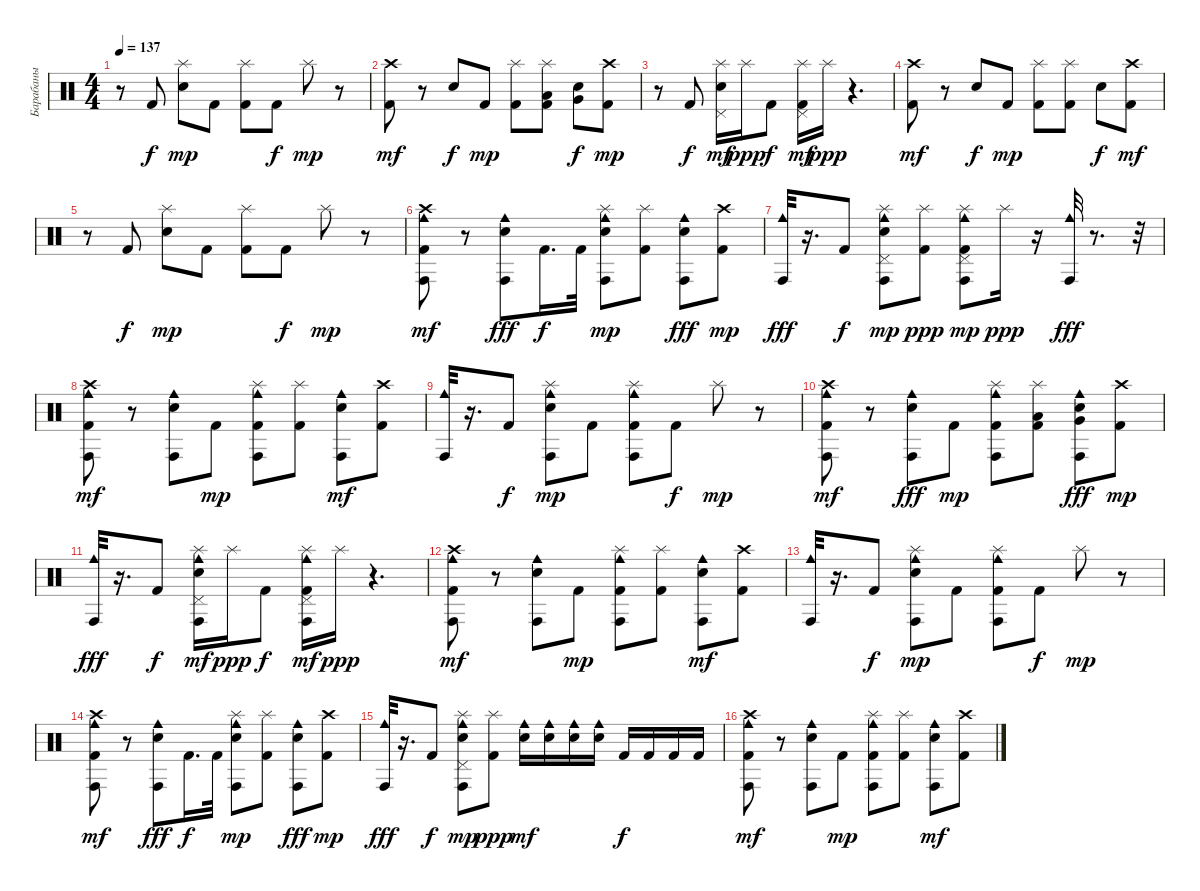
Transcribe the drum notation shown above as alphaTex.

\track ("Барабаны" "Барабаны") {instrument percussion}
\staff {score}
\articulation defaults
\ts (4 4)
\tempo 137
\clef neutral
\ks c
r.8{dy mf} "Kick (hit) 2".8{dy f} ("Splash (hit)" "Electric Snare (hit)").8{dy mp} "Kick (hit) 2".8 ("Splash (hit)" "Kick (hit) 2").8 "Kick (hit) 2".8{dy f} "Splash (hit)".8{dy mp} r.8 |
("Crash high (hit)" "Kick (hit) 2").8{dy mf} r.8 "Electric Snare (hit)".8{dy f} "Kick (hit) 2".8{dy mp} ("Splash (hit)" "Kick (hit) 2").8 ("Splash (hit)" "Low Tom (hit)" "Kick (hit) 2").8 ("Very Low Tom (hit)" "Electric Snare (hit)").8{dy f} ("Crash high (hit)" "Kick (hit) 2").8{dy mp} |
r.8 "Kick (hit) 2".8{dy f} ("Splash (hit)" "Pedal Hi-Hat (hit)" "Electric Snare (hit)").16{dy mf} "Splash (hit)".16{dy ppp} "Kick (hit) 2".8{dy f} ("Splash (hit)" "Pedal Hi-Hat (hit)" "Kick (hit) 2").16{dy mf} "Splash (hit)".16{dy ppp} r.4{d} |
("Crash high (hit)" "Kick (hit) 2").8{dy mf} r.8 "Electric Snare (hit)".8{dy f} "Kick (hit) 2".8{dy mp} ("Splash (hit)" "Kick (hit) 2").8 ("Splash (hit)" "Kick (hit) 2").8 "Electric Snare (hit)".8{dy f} ("Crash high (hit)" "Kick (hit) 2").8{dy mf} |
r.8 "Kick (hit) 2".8{dy f} ("Splash (hit)" "Electric Snare (hit)").8{dy mp} "Kick (hit) 2".8 ("Splash (hit)" "Kick (hit) 2").8 "Kick (hit) 2".8{dy f} "Splash (hit)".8{dy mp} r.8 |
("Conga high (hit)" "Cowbell medium (hit)" "Crash high (hit)" "Kick (hit) 2").8{dy mf} r.8 ("Conga high (hit)" "Cowbell medium (hit)" "Electric Snare (hit)").8{dy fff} "Kick (hit) 2".16{d dy f} "Kick (hit) 2".32 ("Conga high (hit)" "Cowbell medium (hit)" "Electric Snare (hit)" "Splash (hit)").8{dy mp} ("Splash (hit)" "Kick (hit) 2").8 ("Conga high (hit)" "Cowbell medium (hit)" "Electric Snare (hit)").8{dy fff} ("Crash high (hit)" "Kick (hit) 2").8{dy mp} |
("Conga high (hit)" "Cowbell medium (hit)").32{dy fff} r.16{d} "Kick (hit) 2".8{dy f} ("Conga high (hit)" "Cowbell medium (hit)" "Splash (hit)" "Pedal Hi-Hat (hit)" "Electric Snare (hit)").8{dy mp} ("Splash (hit)" "Kick (hit) 2").8{dy ppp} ("Conga high (hit)" "Cowbell medium (hit)" "Splash (hit)" "Pedal Hi-Hat (hit)" "Kick (hit) 2").8{dy mp} "Splash (hit)".16{dy ppp} r.16 ("Conga high (hit)" "Cowbell medium (hit)").32{dy fff} r.8{d} r.32 |
("Cowbell medium (hit)" "Conga high (hit)" "Crash high (hit)" "Kick (hit) 2").8{dy mf} r.8 ("Cowbell medium (hit)" "Conga high (hit)" "Electric Snare (hit)").8 "Kick (hit) 2".8{dy mp} ("Cowbell medium (hit)" "Conga high (hit)" "Splash (hit)" "Kick (hit) 2").8 ("Splash (hit)" "Kick (hit) 2").8 ("Cowbell medium (hit)" "Conga high (hit)" "Electric Snare (hit)").8{dy mf} ("Crash high (hit)" "Kick (hit) 2").8 |
("Cowbell medium (hit)" "Conga high (hit)").32 r.16{d} "Kick (hit) 2".8{dy f} ("Cowbell medium (hit)" "Conga high (hit)" "Splash (hit)" "Electric Snare (hit)").8{dy mp} "Kick (hit) 2".8 ("Cowbell medium (hit)" "Conga high (hit)" "Splash (hit)" "Kick (hit) 2").8 "Kick (hit) 2".8{dy f} "Splash (hit)".8{dy mp} r.8 |
("Conga high (hit)" "Cowbell medium (hit)" "Crash high (hit)" "Kick (hit) 2").8{dy mf} r.8 ("Conga high (hit)" "Cowbell medium (hit)" "Electric Snare (hit)").8{dy fff} "Kick (hit) 2".8{dy mp} ("Conga high (hit)" "Cowbell medium (hit)" "Splash (hit)" "Kick (hit) 2").8 ("Splash (hit)" "Low Tom (hit)" "Kick (hit) 2").8 ("Conga high (hit)" "Cowbell medium (hit)" "Very Low Tom (hit)" "Electric Snare (hit)").8{dy fff} ("Crash high (hit)" "Kick (hit) 2").8{dy mp} |
("Conga high (hit)" "Cowbell medium (hit)").32{dy fff} r.16{d} "Kick (hit) 2".8{dy f} ("Conga high (hit)" "Cowbell medium (hit)" "Splash (hit)" "Pedal Hi-Hat (hit)" "Electric Snare (hit)").16{dy mf} "Splash (hit)".16{dy ppp} "Kick (hit) 2".8{dy f} ("Conga high (hit)" "Cowbell medium (hit)" "Splash (hit)" "Pedal Hi-Hat (hit)" "Kick (hit) 2").16{dy mf} "Splash (hit)".16{dy ppp} r.4{d} |
("Cowbell medium (hit)" "Conga high (hit)" "Crash high (hit)" "Kick (hit) 2").8{dy mf} r.8 ("Cowbell medium (hit)" "Conga high (hit)" "Electric Snare (hit)").8 "Kick (hit) 2".8{dy mp} ("Cowbell medium (hit)" "Conga high (hit)" "Splash (hit)" "Kick (hit) 2").8 ("Splash (hit)" "Kick (hit) 2").8 ("Cowbell medium (hit)" "Conga high (hit)" "Electric Snare (hit)").8{dy mf} ("Crash high (hit)" "Kick (hit) 2").8 |
("Cowbell medium (hit)" "Conga high (hit)").32 r.16{d} "Kick (hit) 2".8{dy f} ("Cowbell medium (hit)" "Conga high (hit)" "Splash (hit)" "Electric Snare (hit)").8{dy mp} "Kick (hit) 2".8 ("Cowbell medium (hit)" "Conga high (hit)" "Splash (hit)" "Kick (hit) 2").8 "Kick (hit) 2".8{dy f} "Splash (hit)".8{dy mp} r.8 |
("Conga high (hit)" "Cowbell medium (hit)" "Crash high (hit)" "Kick (hit) 2").8{dy mf} r.8 ("Conga high (hit)" "Cowbell medium (hit)" "Electric Snare (hit)").8{dy fff} "Kick (hit) 2".16{d dy f} "Kick (hit) 2".32 ("Conga high (hit)" "Cowbell medium (hit)" "Electric Snare (hit)" "Splash (hit)").8{dy mp} ("Splash (hit)" "Kick (hit) 2").8 ("Conga high (hit)" "Cowbell medium (hit)" "Electric Snare (hit)").8{dy fff} ("Crash high (hit)" "Kick (hit) 2").8{dy mp} |
("Conga high (hit)" "Cowbell medium (hit)").32{dy fff} r.16{d} "Kick (hit) 2".8{dy f} ("Conga high (hit)" "Cowbell medium (hit)" "Splash (hit)" "Pedal Hi-Hat (hit)" "Electric Snare (hit)").8{dy mp} ("Splash (hit)" "Kick (hit) 2").8{dy ppp} ("Cowbell medium (hit)" "Electric Snare (hit)").16{dy mf} ("Cowbell medium (hit)" "Electric Snare (hit)").16 ("Cowbell medium (hit)" "Electric Snare (hit)").16 ("Cowbell medium (hit)" "Electric Snare (hit)").16 "Kick (hit) 2".16{dy f} "Kick (hit) 2".16 "Kick (hit) 2".16 "Kick (hit) 2".16 |
("Cowbell medium (hit)" "Conga high (hit)" "Crash high (hit)" "Kick (hit) 2").8{dy mf} r.8 ("Cowbell medium (hit)" "Conga high (hit)" "Electric Snare (hit)").8 "Kick (hit) 2".8{dy mp} ("Cowbell medium (hit)" "Conga high (hit)" "Splash (hit)" "Kick (hit) 2").8 ("Splash (hit)" "Kick (hit) 2").8 ("Cowbell medium (hit)" "Conga high (hit)" "Electric Snare (hit)").8{dy mf} ("Crash high (hit)" "Kick (hit) 2").8
